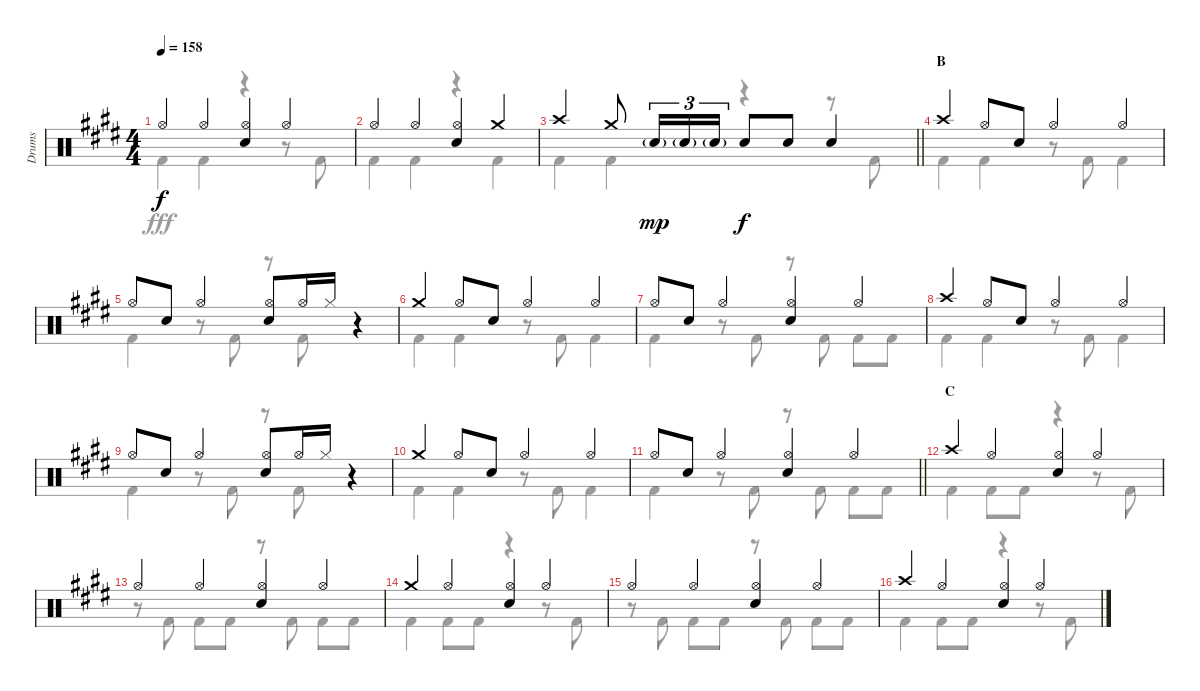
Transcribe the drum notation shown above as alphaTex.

\track ("Drums" "Drums") {instrument percussion}
\staff {score}
\articulation defaults
\voice
\ts (4 4)
\tempo 158
\clef neutral
\ks e "Hi-Hat (open)".4{dy f} "Hi-Hat (open)".4
("Hi-Hat (open)" "Snare (hit) 2").4 "Hi-Hat (open)".4 |
"Hi-Hat (open)".4 "Hi-Hat (open)".4 ("Hi-Hat (open)" "Snare (hit) 2").4 "Crash medium (hit)".4 |
\barLineRight lightlight "Crash high (hit)".4 "Crash medium (hit)".8 "Snare (hit) 2"{g}.16{tu (3 2) dy mp} "Snare (hit) 2"{g}.16{tu (3 2)} "Snare (hit) 2"{g}.16{tu (3 2)} "Snare (hit) 2".8{dy f} "Snare (hit) 2".8 "Snare (hit) 2".4
|
\section ("" "B")
"Crash high (hit)".4 "Hi-Hat (open)".8 "Snare (hit) 2".8 "Hi-Hat (open)".4 "Hi-Hat (open)".4 |
"Hi-Hat (open)".8 "Snare (hit) 2".8 "Hi-Hat (open)".4 ("Hi-Hat (open)" "Snare (hit) 2").8 "Hi-Hat (open)".16 "Hi-Hat (closed)".16 r.4 |
"Crash medium (hit)".4 "Hi-Hat (open)".8 "Snare (hit) 2".8 "Hi-Hat (open)".4 "Hi-Hat (open)".4 |
"Hi-Hat (open)".8 "Snare (hit) 2".8 "Hi-Hat (open)".4 ("Hi-Hat (open)" "Snare (hit) 2").4 "Hi-Hat (open)".4 |
"Crash high (hit)".4 "Hi-Hat (open)".8 "Snare (hit) 2".8 "Hi-Hat (open)".4 "Hi-Hat (open)".4 |
"Hi-Hat (open)".8 "Snare (hit) 2".8 "Hi-Hat (open)".4 ("Hi-Hat (open)" "Snare (hit) 2").8 "Hi-Hat (open)".16 "Hi-Hat (closed)".16 r.4 |
"Crash medium (hit)".4 "Hi-Hat (open)".8 "Snare (hit) 2".8 "Hi-Hat (open)".4 "Hi-Hat (open)".4 |
\barLineRight lightlight "Hi-Hat (open)".8 "Snare (hit) 2".8 "Hi-Hat (open)".4
("Hi-Hat (open)" "Snare (hit) 2").4 "Hi-Hat (open)".4 |
\section ("" "C")
"Crash high (hit)".4 "Hi-Hat (open)".4 ("Hi-Hat (open)" "Snare (hit) 2").4 "Hi-Hat (open)".4 |
"Hi-Hat (open)".4 "Hi-Hat (open)".4 ("Hi-Hat (open)" "Snare (hit) 2").4 "Hi-Hat (open)".4 |
"Crash medium (hit)".4 "Hi-Hat (open)".4 ("Hi-Hat (open)" "Snare (hit) 2").4 "Hi-Hat (open)".4 |
"Hi-Hat (open)".4 "Hi-Hat (open)".4 ("Hi-Hat (open)" "Snare (hit) 2").4 "Hi-Hat (open)".4 |
"Crash high (hit)".4 "Hi-Hat (open)".4 ("Hi-Hat (open)" "Snare (hit) 2").4 "Hi-Hat (open)".4
\voice
\clef neutral
\ottava regular
\simile none
\ks e "Kick (hit) 2".4{dy fff} "Kick (hit) 2".4
r.4 r.8 "Kick (hit) 2".8 |
"Kick (hit) 2".4 "Kick (hit) 2".4 r.4 "Kick (hit) 2".4 |
\barLineRight lightlight "Kick (hit) 2".4 "Kick (hit) 2".4
r.4 r.8 "Kick (hit) 2".8 |
"Kick (hit) 2".4 "Kick (hit) 2".4 r.8 "Kick (hit) 2".8 "Kick (hit) 2".4 |
"Kick (hit) 2".4 r.8 "Kick (hit) 2".8 r.8 "Kick (hit) 2".8 r.4 |
"Kick (hit) 2".4 "Kick (hit) 2".4 r.8 "Kick (hit) 2".8 "Kick (hit) 2".4 |
"Kick (hit) 2".4 r.8 "Kick (hit) 2".8 r.8 "Kick (hit) 2".8 "Kick (hit) 2".8 "Kick (hit) 2".8 |
"Kick (hit) 2".4 "Kick (hit) 2".4 r.8 "Kick (hit) 2".8 "Kick (hit) 2".4 |
"Kick (hit) 2".4 r.8 "Kick (hit) 2".8 r.8 "Kick (hit) 2".8 r.4 |
"Kick (hit) 2".4 "Kick (hit) 2".4 r.8 "Kick (hit) 2".8 "Kick (hit) 2".4 |
\barLineRight lightlight "Kick (hit) 2".4
r.8 "Kick (hit) 2".8 r.8 "Kick (hit) 2".8 "Kick (hit) 2".8 "Kick (hit) 2".8 |
"Kick (hit) 2".4 "Kick (hit) 2".8 "Kick (hit) 2".8 r.4 r.8 "Kick (hit) 2".8 |
r.8 "Kick (hit) 2".8 "Kick (hit) 2".8 "Kick (hit) 2".8 r.8 "Kick (hit) 2".8 "Kick (hit) 2".8 "Kick (hit) 2".8 |
"Kick (hit) 2".4 "Kick (hit) 2".8 "Kick (hit) 2".8 r.4 r.8 "Kick (hit) 2".8 |
r.8 "Kick (hit) 2".8 "Kick (hit) 2".8 "Kick (hit) 2".8 r.8 "Kick (hit) 2".8 "Kick (hit) 2".8 "Kick (hit) 2".8 |
"Kick (hit) 2".4 "Kick (hit) 2".8 "Kick (hit) 2".8 r.4 r.8 "Kick (hit) 2".8
